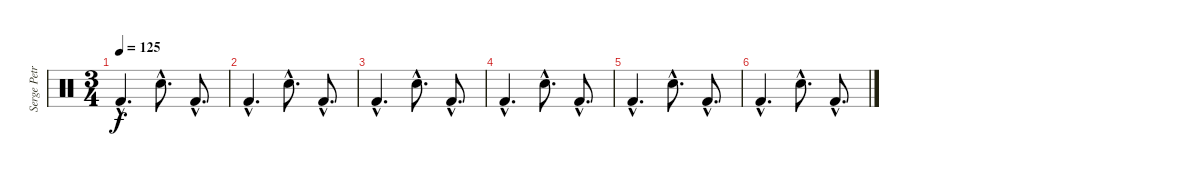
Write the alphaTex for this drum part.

\track ("Serge Petrone" "Serge Petr") {instrument percussion}
\staff {score}
\articulation defaults
\ts (3 4)
\tempo 125
\clef neutral
\ks c "Kick (hit) 2"{hac}.4{d dy f} "Snare (hit) 2"{hac}.8{d} "Kick (hit) 2"{hac}.8{d}
|
"Kick (hit) 2"{hac}.4{d} "Snare (hit) 2"{hac}.8{d} "Kick (hit) 2"{hac}.8{d} |
"Kick (hit) 2"{hac}.4{d} "Snare (hit) 2"{hac}.8{d volume 0} "Kick (hit) 2"{hac}.8{d} |
"Kick (hit) 2"{hac}.4{d} "Snare (hit) 2"{hac}.8{d} "Kick (hit) 2"{hac}.8{d} |
"Kick (hit) 2"{hac}.4{d} "Snare (hit) 2"{hac}.8{d} "Kick (hit) 2"{hac}.8{d} |
"Kick (hit) 2"{hac}.4{d} "Snare (hit) 2"{hac}.8{d} "Kick (hit) 2"{hac}.8{d}
